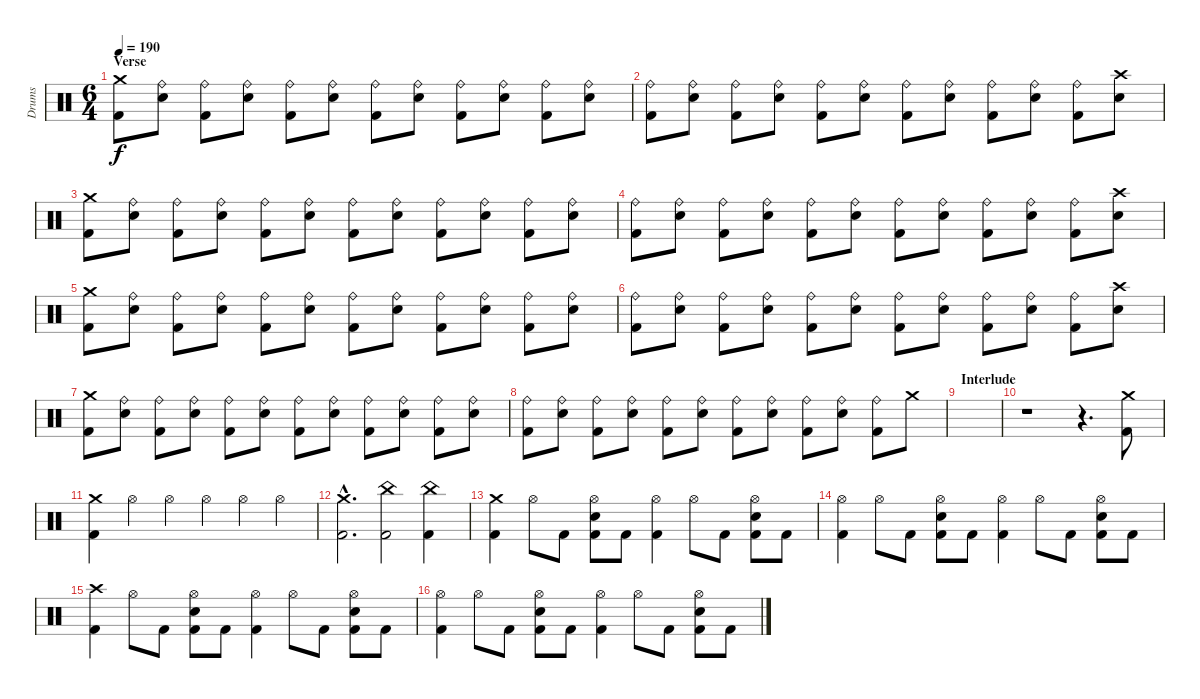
\track ("Drums" "Drums") {instrument percussion}
\staff {score}
\articulation defaults
\ts (6 4)
\section ("" "Verse")
\tempo 190
\clef neutral
\ks c
("Crash medium (hit)" "Kick (hit) 2").8{dy f} ("Ride (bell)" "Snare (hit) 2").8 ("Ride (bell)" "Kick (hit) 2").8 ("Ride (bell)" "Snare (hit) 2").8 ("Ride (bell)" "Kick (hit) 2").8 ("Ride (bell)" "Snare (hit) 2").8 ("Ride (bell)" "Kick (hit) 2").8 ("Ride (bell)" "Snare (hit) 2").8 ("Ride (bell)" "Kick (hit) 2").8 ("Ride (bell)" "Snare (hit) 2").8 ("Ride (bell)" "Kick (hit) 2").8 ("Ride (bell)" "Snare (hit) 2").8 |
("Ride (bell)" "Kick (hit) 2").8 ("Ride (bell)" "Snare (hit) 2").8 ("Ride (bell)" "Kick (hit) 2").8 ("Ride (bell)" "Snare (hit) 2").8 ("Ride (bell)" "Kick (hit) 2").8 ("Ride (bell)" "Snare (hit) 2").8 ("Ride (bell)" "Kick (hit) 2").8 ("Ride (bell)" "Snare (hit) 2").8 ("Ride (bell)" "Kick (hit) 2").8 ("Ride (bell)" "Snare (hit) 2").8 ("Ride (bell)" "Kick (hit) 2").8 ("Crash high (hit)" "Snare (hit) 2").8 |
("Crash medium (hit)" "Kick (hit) 2").8 ("Ride (bell)" "Snare (hit) 2").8 ("Ride (bell)" "Kick (hit) 2").8 ("Ride (bell)" "Snare (hit) 2").8 ("Ride (bell)" "Kick (hit) 2").8 ("Ride (bell)" "Snare (hit) 2").8 ("Ride (bell)" "Kick (hit) 2").8 ("Ride (bell)" "Snare (hit) 2").8 ("Ride (bell)" "Kick (hit) 2").8 ("Ride (bell)" "Snare (hit) 2").8 ("Ride (bell)" "Kick (hit) 2").8 ("Ride (bell)" "Snare (hit) 2").8 |
("Ride (bell)" "Kick (hit) 2").8 ("Ride (bell)" "Snare (hit) 2").8 ("Ride (bell)" "Kick (hit) 2").8 ("Ride (bell)" "Snare (hit) 2").8 ("Ride (bell)" "Kick (hit) 2").8 ("Ride (bell)" "Snare (hit) 2").8 ("Ride (bell)" "Kick (hit) 2").8 ("Ride (bell)" "Snare (hit) 2").8 ("Ride (bell)" "Kick (hit) 2").8 ("Ride (bell)" "Snare (hit) 2").8 ("Ride (bell)" "Kick (hit) 2").8 ("Crash high (hit)" "Snare (hit) 2").8 |
("Crash medium (hit)" "Kick (hit) 2").8 ("Ride (bell)" "Snare (hit) 2").8 ("Ride (bell)" "Kick (hit) 2").8 ("Ride (bell)" "Snare (hit) 2").8 ("Ride (bell)" "Kick (hit) 2").8 ("Ride (bell)" "Snare (hit) 2").8 ("Ride (bell)" "Kick (hit) 2").8 ("Ride (bell)" "Snare (hit) 2").8 ("Ride (bell)" "Kick (hit) 2").8 ("Ride (bell)" "Snare (hit) 2").8 ("Ride (bell)" "Kick (hit) 2").8 ("Ride (bell)" "Snare (hit) 2").8 |
("Ride (bell)" "Kick (hit) 2").8 ("Ride (bell)" "Snare (hit) 2").8 ("Ride (bell)" "Kick (hit) 2").8 ("Ride (bell)" "Snare (hit) 2").8 ("Ride (bell)" "Kick (hit) 2").8 ("Ride (bell)" "Snare (hit) 2").8 ("Ride (bell)" "Kick (hit) 2").8 ("Ride (bell)" "Snare (hit) 2").8 ("Ride (bell)" "Kick (hit) 2").8 ("Ride (bell)" "Snare (hit) 2").8 ("Ride (bell)" "Kick (hit) 2").8 ("Crash high (hit)" "Snare (hit) 2").8 |
("Crash medium (hit)" "Kick (hit) 2").8 ("Ride (bell)" "Snare (hit) 2").8 ("Ride (bell)" "Kick (hit) 2").8 ("Ride (bell)" "Snare (hit) 2").8 ("Ride (bell)" "Kick (hit) 2").8 ("Ride (bell)" "Snare (hit) 2").8 ("Ride (bell)" "Kick (hit) 2").8 ("Ride (bell)" "Snare (hit) 2").8 ("Ride (bell)" "Kick (hit) 2").8 ("Ride (bell)" "Snare (hit) 2").8 ("Ride (bell)" "Kick (hit) 2").8 ("Ride (bell)" "Snare (hit) 2").8 |
("Ride (bell)" "Kick (hit) 2").8 ("Ride (bell)" "Snare (hit) 2").8 ("Ride (bell)" "Kick (hit) 2").8 ("Ride (bell)" "Snare (hit) 2").8 ("Ride (bell)" "Kick (hit) 2").8 ("Ride (bell)" "Snare (hit) 2").8 ("Ride (bell)" "Kick (hit) 2").8 ("Ride (bell)" "Snare (hit) 2").8 ("Ride (bell)" "Kick (hit) 2").8 ("Ride (bell)" "Snare (hit) 2").8 ("Ride (bell)" "Kick (hit) 2").8 "Crash medium (hit)".8 |
\section ("" "Interlude")
|
r.1 r.4{d} ("Crash medium (hit)" "Kick (hit) 2").8 |
("Crash medium (hit)" "Kick (hit) 2").4 "Hi-Hat (open)".4 "Hi-Hat (open)".4 "Hi-Hat (open)".4 "Hi-Hat (open)".4 "Hi-Hat (open)".4 |
("Crash medium (hit)"{hac} "Kick (hit) 2"{hac}).2{d} ("China (hit)" "Kick (hit) 2").2 ("China (hit)" "Kick (hit) 2").4 |
("Crash medium (hit)" "Kick (hit) 2").4 "Hi-Hat (open)".8 "Kick (hit) 2".8 ("Hi-Hat (open)" "Snare (hit) 2" "Kick (hit) 2").8 "Kick (hit) 2".8 ("Hi-Hat (open)" "Kick (hit) 2").4 "Hi-Hat (open)".8 "Kick (hit) 2".8 ("Hi-Hat (open)" "Snare (hit) 2" "Kick (hit) 2").8 "Kick (hit) 2".8 |
("Hi-Hat (open)" "Kick (hit) 2").4 "Hi-Hat (open)".8 "Kick (hit) 2".8 ("Hi-Hat (open)" "Snare (hit) 2" "Kick (hit) 2").8 "Kick (hit) 2".8 ("Hi-Hat (open)" "Kick (hit) 2").4 "Hi-Hat (open)".8 "Kick (hit) 2".8 ("Hi-Hat (open)" "Snare (hit) 2" "Kick (hit) 2").8 "Kick (hit) 2".8 |
("Crash high (hit)" "Kick (hit) 2").4 "Hi-Hat (open)".8 "Kick (hit) 2".8 ("Hi-Hat (open)" "Snare (hit) 2" "Kick (hit) 2").8 "Kick (hit) 2".8 ("Hi-Hat (open)" "Kick (hit) 2").4 "Hi-Hat (open)".8 "Kick (hit) 2".8 ("Hi-Hat (open)" "Snare (hit) 2" "Kick (hit) 2").8 "Kick (hit) 2".8 |
("Hi-Hat (open)" "Kick (hit) 2").4 "Hi-Hat (open)".8 "Kick (hit) 2".8 ("Hi-Hat (open)" "Snare (hit) 2" "Kick (hit) 2").8 "Kick (hit) 2".8 ("Hi-Hat (open)" "Kick (hit) 2").4 "Hi-Hat (open)".8 "Kick (hit) 2".8 ("Hi-Hat (open)" "Snare (hit) 2" "Kick (hit) 2").8 "Kick (hit) 2".8
